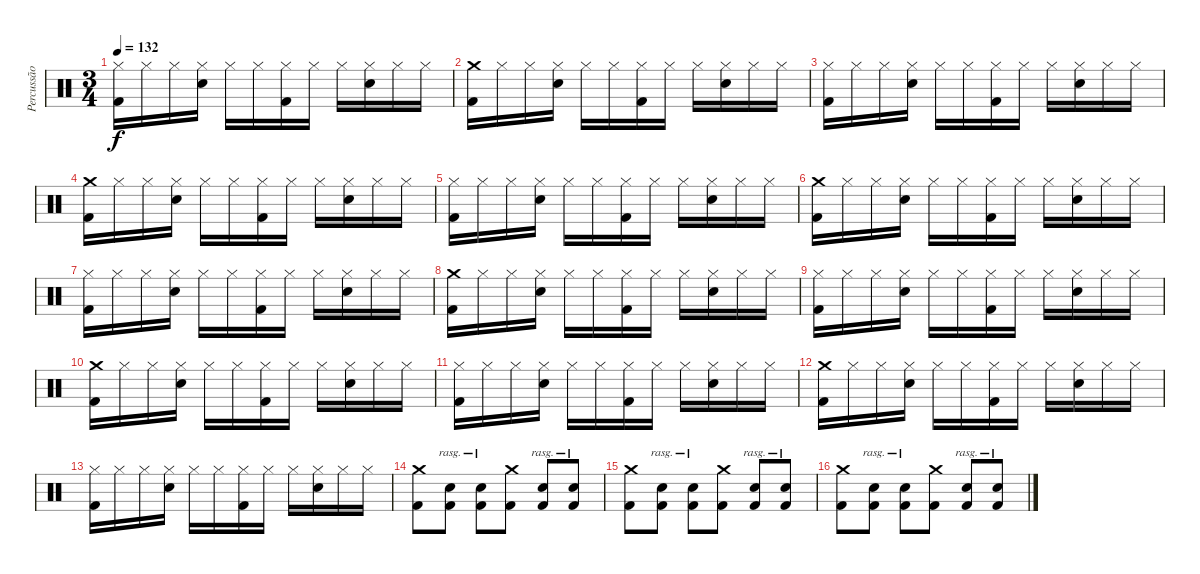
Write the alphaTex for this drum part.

\track ("Percussão" "Percussão") {instrument percussion}
\staff {score}
\articulation defaults
\ts (3 4)
\tempo 132
\clef neutral
\ks c
("Hi-Hat (closed)" "Kick (hit) 2").16{dy f} "Hi-Hat (closed)".16 "Hi-Hat (closed)".16 ("Hi-Hat (closed)" "Snare (hit) 2").16 "Hi-Hat (closed)".16 "Hi-Hat (closed)".16 ("Hi-Hat (closed)" "Kick (hit) 2").16 "Hi-Hat (closed)".16 "Hi-Hat (closed)".16 ("Hi-Hat (closed)" "Snare (hit) 2").16 "Hi-Hat (closed)".16 "Hi-Hat (closed)".16 |
("Crash medium (hit)" "Kick (hit) 2").16 "Hi-Hat (closed)".16 "Hi-Hat (closed)".16 ("Hi-Hat (closed)" "Snare (hit) 2").16 "Hi-Hat (closed)".16 "Hi-Hat (closed)".16 ("Hi-Hat (closed)" "Kick (hit) 2").16 "Hi-Hat (closed)".16 "Hi-Hat (closed)".16 ("Hi-Hat (closed)" "Snare (hit) 2").16 "Hi-Hat (closed)".16 "Hi-Hat (closed)".16 |
("Hi-Hat (closed)" "Kick (hit) 2").16 "Hi-Hat (closed)".16 "Hi-Hat (closed)".16 ("Hi-Hat (closed)" "Snare (hit) 2").16 "Hi-Hat (closed)".16 "Hi-Hat (closed)".16 ("Hi-Hat (closed)" "Kick (hit) 2").16 "Hi-Hat (closed)".16 "Hi-Hat (closed)".16 ("Hi-Hat (closed)" "Snare (hit) 2").16 "Hi-Hat (closed)".16 "Hi-Hat (closed)".16 |
("Crash medium (hit)" "Kick (hit) 2").16 "Hi-Hat (closed)".16 "Hi-Hat (closed)".16 ("Hi-Hat (closed)" "Snare (hit) 2").16 "Hi-Hat (closed)".16 "Hi-Hat (closed)".16 ("Hi-Hat (closed)" "Kick (hit) 2").16 "Hi-Hat (closed)".16 "Hi-Hat (closed)".16 ("Hi-Hat (closed)" "Snare (hit) 2").16 "Hi-Hat (closed)".16 "Hi-Hat (closed)".16 |
("Hi-Hat (closed)" "Kick (hit) 2").16 "Hi-Hat (closed)".16 "Hi-Hat (closed)".16 ("Hi-Hat (closed)" "Snare (hit) 2").16 "Hi-Hat (closed)".16 "Hi-Hat (closed)".16 ("Hi-Hat (closed)" "Kick (hit) 2").16 "Hi-Hat (closed)".16 "Hi-Hat (closed)".16 ("Hi-Hat (closed)" "Snare (hit) 2").16 "Hi-Hat (closed)".16 "Hi-Hat (closed)".16 |
("Crash medium (hit)" "Kick (hit) 2").16 "Hi-Hat (closed)".16 "Hi-Hat (closed)".16 ("Hi-Hat (closed)" "Snare (hit) 2").16 "Hi-Hat (closed)".16 "Hi-Hat (closed)".16 ("Hi-Hat (closed)" "Kick (hit) 2").16 "Hi-Hat (closed)".16 "Hi-Hat (closed)".16 ("Hi-Hat (closed)" "Snare (hit) 2").16 "Hi-Hat (closed)".16 "Hi-Hat (closed)".16 |
("Hi-Hat (closed)" "Kick (hit) 2").16 "Hi-Hat (closed)".16 "Hi-Hat (closed)".16 ("Hi-Hat (closed)" "Snare (hit) 2").16 "Hi-Hat (closed)".16 "Hi-Hat (closed)".16 ("Hi-Hat (closed)" "Kick (hit) 2").16 "Hi-Hat (closed)".16 "Hi-Hat (closed)".16 ("Hi-Hat (closed)" "Snare (hit) 2").16 "Hi-Hat (closed)".16 "Hi-Hat (closed)".16 |
("Crash medium (hit)" "Kick (hit) 2").16 "Hi-Hat (closed)".16 "Hi-Hat (closed)".16 ("Hi-Hat (closed)" "Snare (hit) 2").16 "Hi-Hat (closed)".16 "Hi-Hat (closed)".16 ("Hi-Hat (closed)" "Kick (hit) 2").16 "Hi-Hat (closed)".16 "Hi-Hat (closed)".16 ("Hi-Hat (closed)" "Snare (hit) 2").16 "Hi-Hat (closed)".16 "Hi-Hat (closed)".16 |
("Hi-Hat (closed)" "Kick (hit) 2").16 "Hi-Hat (closed)".16 "Hi-Hat (closed)".16 ("Hi-Hat (closed)" "Snare (hit) 2").16 "Hi-Hat (closed)".16 "Hi-Hat (closed)".16 ("Hi-Hat (closed)" "Kick (hit) 2").16 "Hi-Hat (closed)".16 "Hi-Hat (closed)".16 ("Hi-Hat (closed)" "Snare (hit) 2").16 "Hi-Hat (closed)".16 "Hi-Hat (closed)".16 |
("Crash medium (hit)" "Kick (hit) 2").16 "Hi-Hat (closed)".16 "Hi-Hat (closed)".16 ("Hi-Hat (closed)" "Snare (hit) 2").16 "Hi-Hat (closed)".16 "Hi-Hat (closed)".16 ("Hi-Hat (closed)" "Kick (hit) 2").16 "Hi-Hat (closed)".16 "Hi-Hat (closed)".16 ("Hi-Hat (closed)" "Snare (hit) 2").16 "Hi-Hat (closed)".16 "Hi-Hat (closed)".16 |
("Hi-Hat (closed)" "Kick (hit) 2").16 "Hi-Hat (closed)".16 "Hi-Hat (closed)".16 ("Hi-Hat (closed)" "Snare (hit) 2").16 "Hi-Hat (closed)".16 "Hi-Hat (closed)".16 ("Hi-Hat (closed)" "Kick (hit) 2").16 "Hi-Hat (closed)".16 "Hi-Hat (closed)".16 ("Hi-Hat (closed)" "Snare (hit) 2").16 "Hi-Hat (closed)".16 "Hi-Hat (closed)".16 |
("Crash medium (hit)" "Kick (hit) 2").16 "Hi-Hat (closed)".16 "Hi-Hat (closed)".16 ("Hi-Hat (closed)" "Snare (hit) 2").16 "Hi-Hat (closed)".16 "Hi-Hat (closed)".16 ("Hi-Hat (closed)" "Kick (hit) 2").16 "Hi-Hat (closed)".16 "Hi-Hat (closed)".16 ("Hi-Hat (closed)" "Snare (hit) 2").16 "Hi-Hat (closed)".16 "Hi-Hat (closed)".16 |
("Hi-Hat (closed)" "Kick (hit) 2").16 "Hi-Hat (closed)".16 "Hi-Hat (closed)".16 ("Hi-Hat (closed)" "Snare (hit) 2").16 "Hi-Hat (closed)".16 "Hi-Hat (closed)".16 ("Hi-Hat (closed)" "Kick (hit) 2").16 "Hi-Hat (closed)".16 "Hi-Hat (closed)".16 ("Hi-Hat (closed)" "Snare (hit) 2").16 "Hi-Hat (closed)".16 "Hi-Hat (closed)".16 |
("Crash medium (hit)" "Kick (hit) 2").8 ("Snare (hit) 2" "Kick (hit) 2").8{bu 480 rasg ii} ("Snare (hit) 2" "Kick (hit) 2").8{bu 480 rasg ii} ("Crash medium (hit)" "Kick (hit) 2").8 ("Snare (hit) 2" "Kick (hit) 2").8{bu 480 rasg ii} ("Snare (hit) 2" "Kick (hit) 2").8{bu 480 rasg ii} |
("Crash medium (hit)" "Kick (hit) 2").8 ("Snare (hit) 2" "Kick (hit) 2").8{bu 480 rasg ii} ("Snare (hit) 2" "Kick (hit) 2").8{bu 480 rasg ii} ("Crash medium (hit)" "Kick (hit) 2").8 ("Snare (hit) 2" "Kick (hit) 2").8{bu 480 rasg ii} ("Snare (hit) 2" "Kick (hit) 2").8{bu 480 rasg ii} |
("Crash medium (hit)" "Kick (hit) 2").8 ("Snare (hit) 2" "Kick (hit) 2").8{bu 480 rasg ii} ("Snare (hit) 2" "Kick (hit) 2").8{bu 480 rasg ii} ("Crash medium (hit)" "Kick (hit) 2").8 ("Snare (hit) 2" "Kick (hit) 2").8{bu 480 rasg ii} ("Snare (hit) 2" "Kick (hit) 2").8{bu 480 rasg ii}
